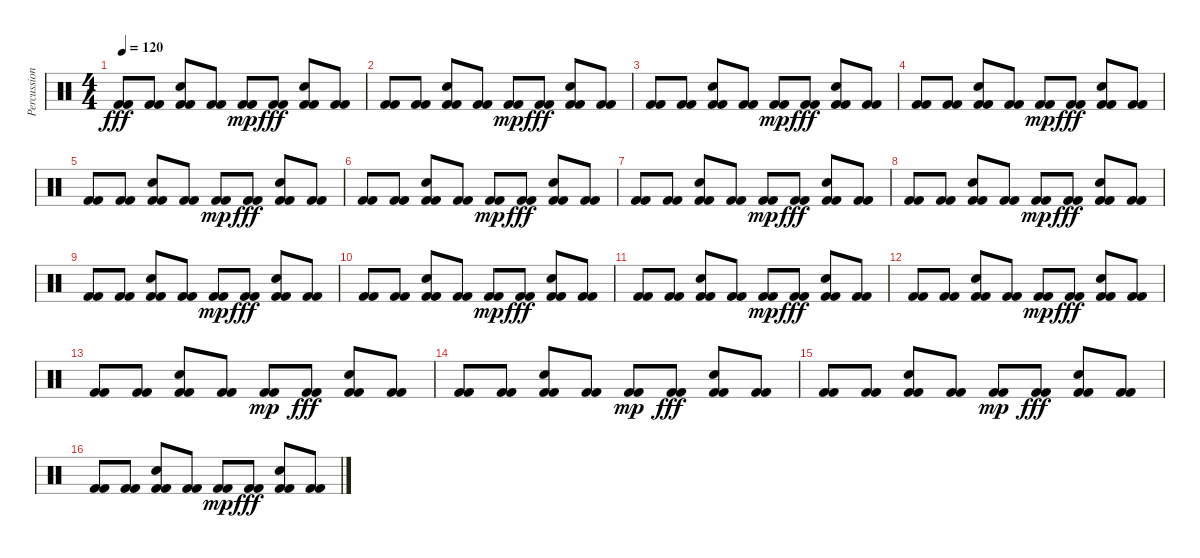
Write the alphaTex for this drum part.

\track ("Percussion" "Percussion") {instrument percussion}
\staff {score}
\articulation defaults
\ts (4 4)
\tempo 120
\clef neutral
\ks c
("Kick (hit) 2" "Kick (hit) 2").8{dy fff} ("Kick (hit) 2" "Kick (hit) 2").8 ("Snare (hit) 2" "Kick (hit) 2" "Kick (hit) 2").8 ("Kick (hit) 2" "Kick (hit) 2").8 ("Kick (hit) 2" "Kick (hit) 2").8{dy mp} ("Kick (hit) 2" "Kick (hit) 2").8{dy fff} ("Snare (hit) 2" "Kick (hit) 2" "Kick (hit) 2").8 ("Kick (hit) 2" "Kick (hit) 2").8 |
("Kick (hit) 2" "Kick (hit) 2").8 ("Kick (hit) 2" "Kick (hit) 2").8 ("Snare (hit) 2" "Kick (hit) 2" "Kick (hit) 2").8 ("Kick (hit) 2" "Kick (hit) 2").8 ("Kick (hit) 2" "Kick (hit) 2").8{dy mp} ("Kick (hit) 2" "Kick (hit) 2").8{dy fff} ("Snare (hit) 2" "Kick (hit) 2" "Kick (hit) 2").8 ("Kick (hit) 2" "Kick (hit) 2").8 |
("Kick (hit) 2" "Kick (hit) 2").8 ("Kick (hit) 2" "Kick (hit) 2").8 ("Snare (hit) 2" "Kick (hit) 2" "Kick (hit) 2").8 ("Kick (hit) 2" "Kick (hit) 2").8 ("Kick (hit) 2" "Kick (hit) 2").8{dy mp} ("Kick (hit) 2" "Kick (hit) 2").8{dy fff} ("Snare (hit) 2" "Kick (hit) 2" "Kick (hit) 2").8 ("Kick (hit) 2" "Kick (hit) 2").8 |
("Kick (hit) 2" "Kick (hit) 2").8 ("Kick (hit) 2" "Kick (hit) 2").8 ("Snare (hit) 2" "Kick (hit) 2" "Kick (hit) 2").8 ("Kick (hit) 2" "Kick (hit) 2").8 ("Kick (hit) 2" "Kick (hit) 2").8{dy mp} ("Kick (hit) 2" "Kick (hit) 2").8{dy fff} ("Snare (hit) 2" "Kick (hit) 2" "Kick (hit) 2").8 ("Kick (hit) 2" "Kick (hit) 2").8 |
("Kick (hit) 2" "Kick (hit) 2").8 ("Kick (hit) 2" "Kick (hit) 2").8 ("Snare (hit) 2" "Kick (hit) 2" "Kick (hit) 2").8 ("Kick (hit) 2" "Kick (hit) 2").8 ("Kick (hit) 2" "Kick (hit) 2").8{dy mp} ("Kick (hit) 2" "Kick (hit) 2").8{dy fff} ("Snare (hit) 2" "Kick (hit) 2" "Kick (hit) 2").8 ("Kick (hit) 2" "Kick (hit) 2").8 |
("Kick (hit) 2" "Kick (hit) 2").8 ("Kick (hit) 2" "Kick (hit) 2").8 ("Snare (hit) 2" "Kick (hit) 2" "Kick (hit) 2").8 ("Kick (hit) 2" "Kick (hit) 2").8 ("Kick (hit) 2" "Kick (hit) 2").8{dy mp} ("Kick (hit) 2" "Kick (hit) 2").8{dy fff} ("Snare (hit) 2" "Kick (hit) 2" "Kick (hit) 2").8 ("Kick (hit) 2" "Kick (hit) 2").8 |
("Kick (hit) 2" "Kick (hit) 2").8 ("Kick (hit) 2" "Kick (hit) 2").8 ("Snare (hit) 2" "Kick (hit) 2" "Kick (hit) 2").8 ("Kick (hit) 2" "Kick (hit) 2").8 ("Kick (hit) 2" "Kick (hit) 2").8{dy mp} ("Kick (hit) 2" "Kick (hit) 2").8{dy fff} ("Snare (hit) 2" "Kick (hit) 2" "Kick (hit) 2").8 ("Kick (hit) 2" "Kick (hit) 2").8 |
("Kick (hit) 2" "Kick (hit) 2").8 ("Kick (hit) 2" "Kick (hit) 2").8 ("Snare (hit) 2" "Kick (hit) 2" "Kick (hit) 2").8 ("Kick (hit) 2" "Kick (hit) 2").8 ("Kick (hit) 2" "Kick (hit) 2").8{dy mp} ("Kick (hit) 2" "Kick (hit) 2").8{dy fff} ("Snare (hit) 2" "Kick (hit) 2" "Kick (hit) 2").8 ("Kick (hit) 2" "Kick (hit) 2").8 |
("Kick (hit) 2" "Kick (hit) 2").8 ("Kick (hit) 2" "Kick (hit) 2").8 ("Snare (hit) 2" "Kick (hit) 2" "Kick (hit) 2").8 ("Kick (hit) 2" "Kick (hit) 2").8 ("Kick (hit) 2" "Kick (hit) 2").8{dy mp} ("Kick (hit) 2" "Kick (hit) 2").8{dy fff} ("Snare (hit) 2" "Kick (hit) 2" "Kick (hit) 2").8 ("Kick (hit) 2" "Kick (hit) 2").8 |
("Kick (hit) 2" "Kick (hit) 2").8 ("Kick (hit) 2" "Kick (hit) 2").8 ("Snare (hit) 2" "Kick (hit) 2" "Kick (hit) 2").8 ("Kick (hit) 2" "Kick (hit) 2").8 ("Kick (hit) 2" "Kick (hit) 2").8{dy mp} ("Kick (hit) 2" "Kick (hit) 2").8{dy fff} ("Snare (hit) 2" "Kick (hit) 2" "Kick (hit) 2").8 ("Kick (hit) 2" "Kick (hit) 2").8 |
("Kick (hit) 2" "Kick (hit) 2").8 ("Kick (hit) 2" "Kick (hit) 2").8 ("Snare (hit) 2" "Kick (hit) 2" "Kick (hit) 2").8 ("Kick (hit) 2" "Kick (hit) 2").8 ("Kick (hit) 2" "Kick (hit) 2").8{dy mp} ("Kick (hit) 2" "Kick (hit) 2").8{dy fff} ("Snare (hit) 2" "Kick (hit) 2" "Kick (hit) 2").8 ("Kick (hit) 2" "Kick (hit) 2").8 |
("Kick (hit) 2" "Kick (hit) 2").8 ("Kick (hit) 2" "Kick (hit) 2").8 ("Snare (hit) 2" "Kick (hit) 2" "Kick (hit) 2").8 ("Kick (hit) 2" "Kick (hit) 2").8 ("Kick (hit) 2" "Kick (hit) 2").8{dy mp} ("Kick (hit) 2" "Kick (hit) 2").8{dy fff} ("Snare (hit) 2" "Kick (hit) 2" "Kick (hit) 2").8 ("Kick (hit) 2" "Kick (hit) 2").8 |
("Kick (hit) 2" "Kick (hit) 2").8 ("Kick (hit) 2" "Kick (hit) 2").8 ("Snare (hit) 2" "Kick (hit) 2" "Kick (hit) 2").8 ("Kick (hit) 2" "Kick (hit) 2").8 ("Kick (hit) 2" "Kick (hit) 2").8{dy mp} ("Kick (hit) 2" "Kick (hit) 2").8{dy fff} ("Snare (hit) 2" "Kick (hit) 2" "Kick (hit) 2").8 ("Kick (hit) 2" "Kick (hit) 2").8 |
("Kick (hit) 2" "Kick (hit) 2").8 ("Kick (hit) 2" "Kick (hit) 2").8 ("Snare (hit) 2" "Kick (hit) 2" "Kick (hit) 2").8 ("Kick (hit) 2" "Kick (hit) 2").8 ("Kick (hit) 2" "Kick (hit) 2").8{dy mp} ("Kick (hit) 2" "Kick (hit) 2").8{dy fff} ("Snare (hit) 2" "Kick (hit) 2" "Kick (hit) 2").8 ("Kick (hit) 2" "Kick (hit) 2").8 |
("Kick (hit) 2" "Kick (hit) 2").8 ("Kick (hit) 2" "Kick (hit) 2").8 ("Snare (hit) 2" "Kick (hit) 2" "Kick (hit) 2").8 ("Kick (hit) 2" "Kick (hit) 2").8 ("Kick (hit) 2" "Kick (hit) 2").8{dy mp} ("Kick (hit) 2" "Kick (hit) 2").8{dy fff} ("Snare (hit) 2" "Kick (hit) 2" "Kick (hit) 2").8 ("Kick (hit) 2" "Kick (hit) 2").8 |
("Kick (hit) 2" "Kick (hit) 2").8 ("Kick (hit) 2" "Kick (hit) 2").8 ("Snare (hit) 2" "Kick (hit) 2" "Kick (hit) 2").8 ("Kick (hit) 2" "Kick (hit) 2").8 ("Kick (hit) 2" "Kick (hit) 2").8{dy mp} ("Kick (hit) 2" "Kick (hit) 2").8{dy fff} ("Snare (hit) 2" "Kick (hit) 2" "Kick (hit) 2").8 ("Kick (hit) 2" "Kick (hit) 2").8
